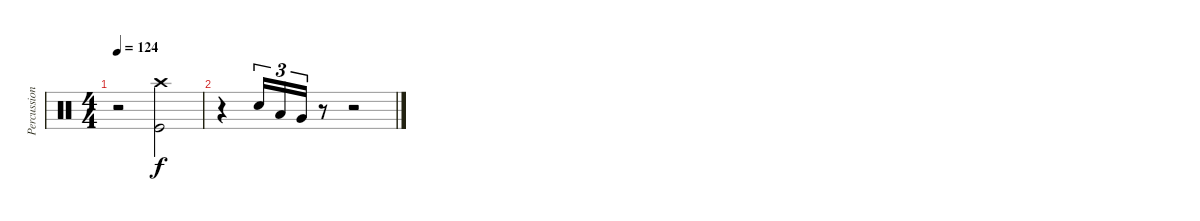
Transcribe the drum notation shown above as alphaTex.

\track ("Percussions" "Percussion") {instrument percussion}
\staff {score}
\articulation defaults
\ts (4 4)
\tempo 124
\clef neutral
\ks c
r.2{dy f} ("Crash high (hit)" "Kick (hit)").2 |
r.4 "Electric Snare (hit)".16{tu (3 2)} "Low Tom (hit)".16{tu (3 2)} "Very Low Tom (hit)".16{tu (3 2)} r.8 r.2
